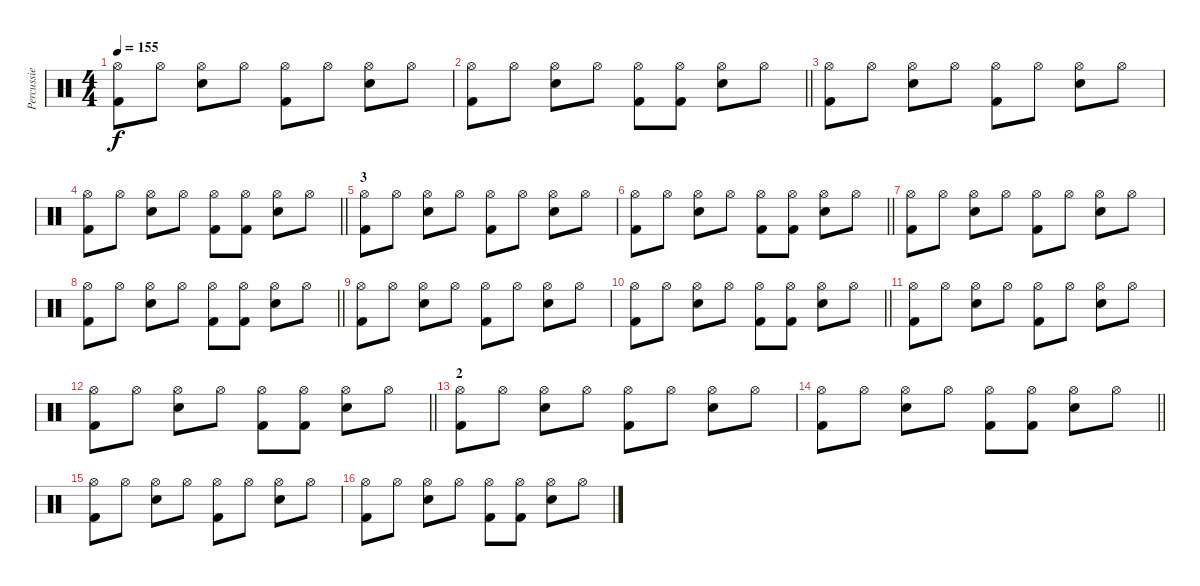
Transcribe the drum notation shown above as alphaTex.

\track ("Percussie" "Percussie") {instrument percussion}
\staff {score}
\articulation defaults
\ts (4 4)
\tempo 155
\clef neutral
\ks c
("Hi-Hat (open)" "Kick (hit) 2").8{dy f} "Hi-Hat (open)".8 ("Hi-Hat (open)" "Snare (hit) 2").8 "Hi-Hat (open)".8 ("Hi-Hat (open)" "Kick (hit) 2").8 "Hi-Hat (open)".8 ("Hi-Hat (open)" "Snare (hit) 2").8 "Hi-Hat (open)".8 |
\barLineRight lightlight
("Hi-Hat (open)" "Kick (hit) 2").8 "Hi-Hat (open)".8 ("Hi-Hat (open)" "Snare (hit) 2").8 "Hi-Hat (open)".8 ("Hi-Hat (open)" "Kick (hit) 2").8 ("Hi-Hat (open)" "Kick (hit) 2").8 ("Hi-Hat (open)" "Snare (hit) 2").8 "Hi-Hat (open)".8 |
("Hi-Hat (open)" "Kick (hit) 2").8 "Hi-Hat (open)".8 ("Hi-Hat (open)" "Snare (hit) 2").8 "Hi-Hat (open)".8 ("Hi-Hat (open)" "Kick (hit) 2").8 "Hi-Hat (open)".8 ("Hi-Hat (open)" "Snare (hit) 2").8 "Hi-Hat (open)".8 |
\barLineRight lightlight
("Hi-Hat (open)" "Kick (hit) 2").8 "Hi-Hat (open)".8 ("Hi-Hat (open)" "Snare (hit) 2").8 "Hi-Hat (open)".8 ("Hi-Hat (open)" "Kick (hit) 2").8 ("Hi-Hat (open)" "Kick (hit) 2").8 ("Hi-Hat (open)" "Snare (hit) 2").8 "Hi-Hat (open)".8 |
\section ("" "3")
("Hi-Hat (open)" "Kick (hit) 2").8 "Hi-Hat (open)".8 ("Hi-Hat (open)" "Snare (hit) 2").8 "Hi-Hat (open)".8 ("Hi-Hat (open)" "Kick (hit) 2").8 "Hi-Hat (open)".8 ("Hi-Hat (open)" "Snare (hit) 2").8 "Hi-Hat (open)".8 |
\barLineRight lightlight
("Hi-Hat (open)" "Kick (hit) 2").8 "Hi-Hat (open)".8 ("Hi-Hat (open)" "Snare (hit) 2").8 "Hi-Hat (open)".8 ("Hi-Hat (open)" "Kick (hit) 2").8 ("Hi-Hat (open)" "Kick (hit) 2").8 ("Hi-Hat (open)" "Snare (hit) 2").8 "Hi-Hat (open)".8 |
("Hi-Hat (open)" "Kick (hit) 2").8 "Hi-Hat (open)".8 ("Hi-Hat (open)" "Snare (hit) 2").8 "Hi-Hat (open)".8 ("Hi-Hat (open)" "Kick (hit) 2").8 "Hi-Hat (open)".8 ("Hi-Hat (open)" "Snare (hit) 2").8 "Hi-Hat (open)".8 |
\barLineRight lightlight
("Hi-Hat (open)" "Kick (hit) 2").8 "Hi-Hat (open)".8 ("Hi-Hat (open)" "Snare (hit) 2").8 "Hi-Hat (open)".8 ("Hi-Hat (open)" "Kick (hit) 2").8 ("Hi-Hat (open)" "Kick (hit) 2").8 ("Hi-Hat (open)" "Snare (hit) 2").8 "Hi-Hat (open)".8 |
("Hi-Hat (open)" "Kick (hit) 2").8 "Hi-Hat (open)".8 ("Hi-Hat (open)" "Snare (hit) 2").8 "Hi-Hat (open)".8 ("Hi-Hat (open)" "Kick (hit) 2").8 "Hi-Hat (open)".8 ("Hi-Hat (open)" "Snare (hit) 2").8 "Hi-Hat (open)".8 |
\barLineRight lightlight
("Hi-Hat (open)" "Kick (hit) 2").8 "Hi-Hat (open)".8 ("Hi-Hat (open)" "Snare (hit) 2").8 "Hi-Hat (open)".8 ("Hi-Hat (open)" "Kick (hit) 2").8 ("Hi-Hat (open)" "Kick (hit) 2").8 ("Hi-Hat (open)" "Snare (hit) 2").8 "Hi-Hat (open)".8 |
("Hi-Hat (open)" "Kick (hit) 2").8 "Hi-Hat (open)".8 ("Hi-Hat (open)" "Snare (hit) 2").8 "Hi-Hat (open)".8 ("Hi-Hat (open)" "Kick (hit) 2").8 "Hi-Hat (open)".8 ("Hi-Hat (open)" "Snare (hit) 2").8 "Hi-Hat (open)".8 |
\barLineRight lightlight
("Hi-Hat (open)" "Kick (hit) 2").8 "Hi-Hat (open)".8 ("Hi-Hat (open)" "Snare (hit) 2").8 "Hi-Hat (open)".8 ("Hi-Hat (open)" "Kick (hit) 2").8 ("Hi-Hat (open)" "Kick (hit) 2").8 ("Hi-Hat (open)" "Snare (hit) 2").8 "Hi-Hat (open)".8 |
\section ("" "2")
("Hi-Hat (open)" "Kick (hit) 2").8 "Hi-Hat (open)".8 ("Hi-Hat (open)" "Snare (hit) 2").8 "Hi-Hat (open)".8 ("Hi-Hat (open)" "Kick (hit) 2").8 "Hi-Hat (open)".8 ("Hi-Hat (open)" "Snare (hit) 2").8 "Hi-Hat (open)".8 |
\barLineRight lightlight
("Hi-Hat (open)" "Kick (hit) 2").8 "Hi-Hat (open)".8 ("Hi-Hat (open)" "Snare (hit) 2").8 "Hi-Hat (open)".8 ("Hi-Hat (open)" "Kick (hit) 2").8 ("Hi-Hat (open)" "Kick (hit) 2").8 ("Hi-Hat (open)" "Snare (hit) 2").8 "Hi-Hat (open)".8 |
("Hi-Hat (open)" "Kick (hit) 2").8 "Hi-Hat (open)".8 ("Hi-Hat (open)" "Snare (hit) 2").8 "Hi-Hat (open)".8 ("Hi-Hat (open)" "Kick (hit) 2").8 "Hi-Hat (open)".8 ("Hi-Hat (open)" "Snare (hit) 2").8 "Hi-Hat (open)".8 |
("Hi-Hat (open)" "Kick (hit) 2").8 "Hi-Hat (open)".8 ("Hi-Hat (open)" "Snare (hit) 2").8 "Hi-Hat (open)".8 ("Hi-Hat (open)" "Kick (hit) 2").8 ("Hi-Hat (open)" "Kick (hit) 2").8 ("Hi-Hat (open)" "Snare (hit) 2").8 "Hi-Hat (open)".8
